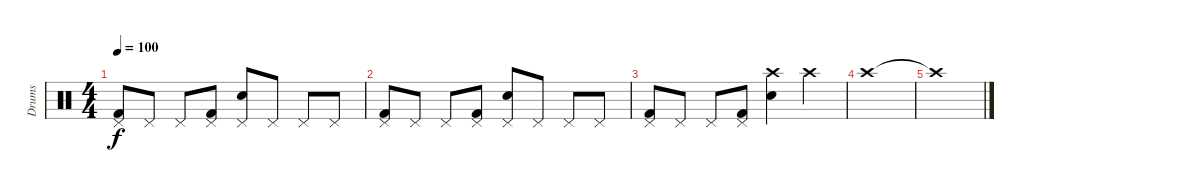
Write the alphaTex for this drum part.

\track ("Drums" "Drums") {instrument percussion}
\staff {score}
\articulation defaults
\ts (4 4)
\tempo 100
\clef neutral
\ks c
("Pedal Hi-Hat (hit)" "Kick (hit) 2").8{dy f} "Pedal Hi-Hat (hit)".8 "Pedal Hi-Hat (hit)".8 ("Pedal Hi-Hat (hit)" "Kick (hit) 2").8 ("Pedal Hi-Hat (hit)" "Snare (hit) 2").8 "Pedal Hi-Hat (hit)".8 "Pedal Hi-Hat (hit)".8 "Pedal Hi-Hat (hit)".8 |
("Pedal Hi-Hat (hit)" "Kick (hit) 2").8 "Pedal Hi-Hat (hit)".8 "Pedal Hi-Hat (hit)".8 ("Pedal Hi-Hat (hit)" "Kick (hit) 2").8 ("Pedal Hi-Hat (hit)" "Snare (hit) 2").8 "Pedal Hi-Hat (hit)".8 "Pedal Hi-Hat (hit)".8 "Pedal Hi-Hat (hit)".8 |
("Pedal Hi-Hat (hit)" "Kick (hit) 2").8 "Pedal Hi-Hat (hit)".8 "Pedal Hi-Hat (hit)".8 ("Pedal Hi-Hat (hit)" "Kick (hit) 2").8 ("Crash high (hit)" "Snare (hit) 2").4 "Crash high (hit)".4 |
"Crash high (hit)".1 |
"Crash high (hit)"{t}.1
